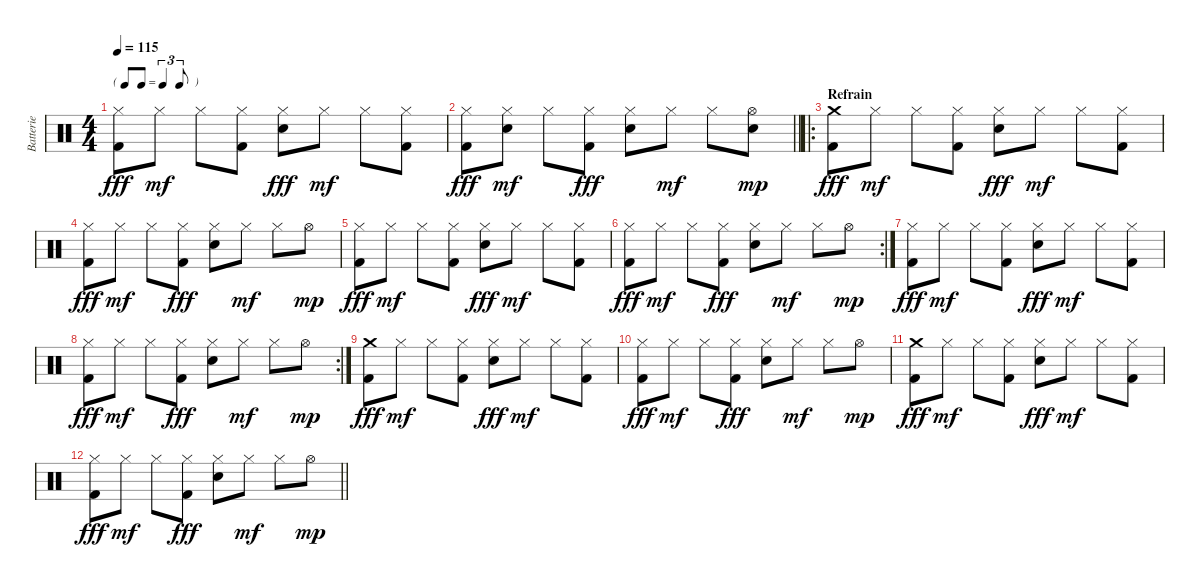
\track ("Batterie" "Batterie") {instrument percussion}
\staff {score}
\articulation defaults
\ts (4 4)
\tf triplet8th
\tempo 115
\clef neutral
\ks c
("Hi-Hat (closed)" "Kick (hit) 2").8{dy fff} "Hi-Hat (closed)".8{dy mf} "Hi-Hat (closed)".8 ("Hi-Hat (closed)" "Kick (hit) 2").8 ("Hi-Hat (closed)" "Electric Snare (hit)").8{dy fff} "Hi-Hat (closed)".8{dy mf} "Hi-Hat (closed)".8 ("Hi-Hat (closed)" "Kick (hit) 2").8 |
\barLineRight lightlight
("Hi-Hat (closed)" "Kick (hit) 2").8{dy fff} ("Hi-Hat (closed)" "Electric Snare (hit)").8{dy mf} "Hi-Hat (closed)".8 ("Hi-Hat (closed)" "Kick (hit) 2").8{dy fff} ("Hi-Hat (closed)" "Electric Snare (hit)").8 "Hi-Hat (closed)".8{dy mf} "Hi-Hat (closed)".8 ("Hi-Hat (open)" "Electric Snare (hit)").8{dy mp} |
\ro
\section ("" "Refrain")
("Crash medium (hit)" "Kick (hit) 2").8{dy fff} "Hi-Hat (closed)".8{dy mf} "Hi-Hat (closed)".8 ("Hi-Hat (closed)" "Kick (hit) 2").8 ("Hi-Hat (closed)" "Electric Snare (hit)").8{dy fff} "Hi-Hat (closed)".8{dy mf} "Hi-Hat (closed)".8 ("Hi-Hat (closed)" "Kick (hit) 2").8 |
("Hi-Hat (closed)" "Kick (hit) 2").8{dy fff} "Hi-Hat (closed)".8{dy mf} "Hi-Hat (closed)".8 ("Hi-Hat (closed)" "Kick (hit) 2").8{dy fff} ("Hi-Hat (closed)" "Electric Snare (hit)").8 "Hi-Hat (closed)".8{dy mf} "Hi-Hat (closed)".8 "Hi-Hat (open)".8{dy mp} |
("Hi-Hat (closed)" "Kick (hit) 2").8{dy fff} "Hi-Hat (closed)".8{dy mf} "Hi-Hat (closed)".8 ("Hi-Hat (closed)" "Kick (hit) 2").8 ("Hi-Hat (closed)" "Electric Snare (hit)").8{dy fff} "Hi-Hat (closed)".8{dy mf} "Hi-Hat (closed)".8 ("Hi-Hat (closed)" "Kick (hit) 2").8 |
\rc 2
("Hi-Hat (closed)" "Kick (hit) 2").8{dy fff} "Hi-Hat (closed)".8{dy mf} "Hi-Hat (closed)".8 ("Hi-Hat (closed)" "Kick (hit) 2").8{dy fff} ("Hi-Hat (closed)" "Electric Snare (hit)").8 "Hi-Hat (closed)".8{dy mf} "Hi-Hat (closed)".8 "Hi-Hat (open)".8{dy mp} |
("Hi-Hat (closed)" "Kick (hit) 2").8{dy fff} "Hi-Hat (closed)".8{dy mf} "Hi-Hat (closed)".8 ("Hi-Hat (closed)" "Kick (hit) 2").8 ("Hi-Hat (closed)" "Electric Snare (hit)").8{dy fff} "Hi-Hat (closed)".8{dy mf} "Hi-Hat (closed)".8 ("Hi-Hat (closed)" "Kick (hit) 2").8 |
\rc 2
("Hi-Hat (closed)" "Kick (hit) 2").8{dy fff} "Hi-Hat (closed)".8{dy mf} "Hi-Hat (closed)".8 ("Hi-Hat (closed)" "Kick (hit) 2").8{dy fff} ("Hi-Hat (closed)" "Electric Snare (hit)").8 "Hi-Hat (closed)".8{dy mf} "Hi-Hat (closed)".8 "Hi-Hat (open)".8{dy mp} |
("Crash medium (hit)" "Kick (hit) 2").8{dy fff} "Hi-Hat (closed)".8{dy mf} "Hi-Hat (closed)".8 ("Hi-Hat (closed)" "Kick (hit) 2").8 ("Hi-Hat (closed)" "Electric Snare (hit)").8{dy fff} "Hi-Hat (closed)".8{dy mf} "Hi-Hat (closed)".8 ("Hi-Hat (closed)" "Kick (hit) 2").8 |
("Hi-Hat (closed)" "Kick (hit) 2").8{dy fff} "Hi-Hat (closed)".8{dy mf} "Hi-Hat (closed)".8 ("Hi-Hat (closed)" "Kick (hit) 2").8{dy fff} ("Hi-Hat (closed)" "Electric Snare (hit)").8 "Hi-Hat (closed)".8{dy mf} "Hi-Hat (closed)".8 "Hi-Hat (open)".8{dy mp} |
("Crash medium (hit)" "Kick (hit) 2").8{dy fff} "Hi-Hat (closed)".8{dy mf} "Hi-Hat (closed)".8 ("Hi-Hat (closed)" "Kick (hit) 2").8 ("Hi-Hat (closed)" "Electric Snare (hit)").8{dy fff} "Hi-Hat (closed)".8{dy mf} "Hi-Hat (closed)".8 ("Hi-Hat (closed)" "Kick (hit) 2").8 |
\barLineRight lightlight
("Hi-Hat (closed)" "Kick (hit) 2").8{dy fff} "Hi-Hat (closed)".8{dy mf} "Hi-Hat (closed)".8 ("Hi-Hat (closed)" "Kick (hit) 2").8{dy fff} ("Hi-Hat (closed)" "Electric Snare (hit)").8 "Hi-Hat (closed)".8{dy mf} "Hi-Hat (closed)".8 "Hi-Hat (open)".8{dy mp}
